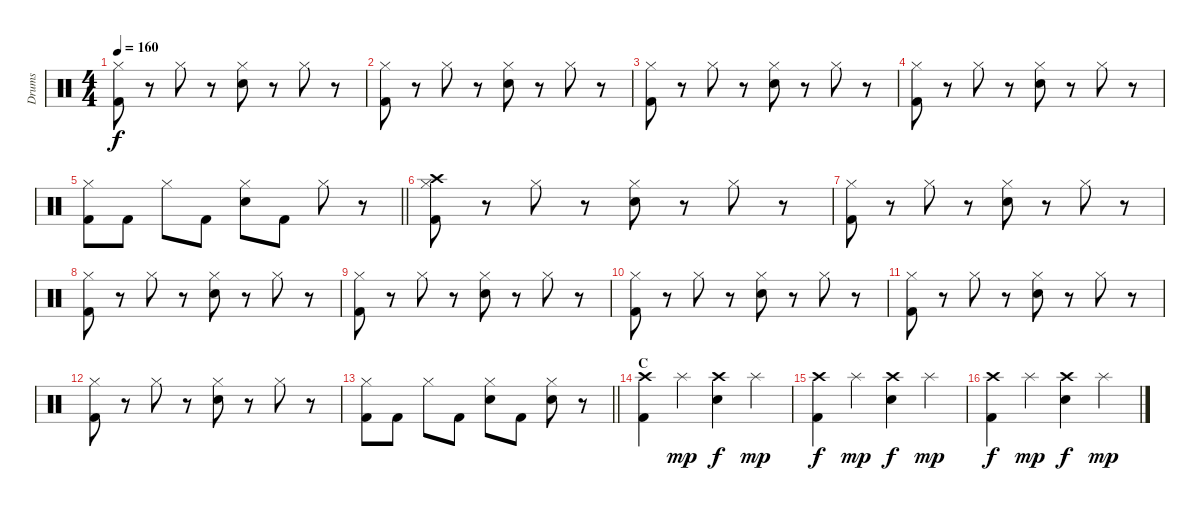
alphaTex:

\track ("Drums" "Drums") {instrument percussion}
\staff {score}
\articulation defaults
\ts (4 4)
\tempo 160
\clef neutral
\ks c
("Hi-Hat (closed)" "Kick (hit) 2").8{dy f} r.8 "Hi-Hat (closed)".8 r.8 ("Hi-Hat (closed)" "Snare (hit) 2").8 r.8 "Hi-Hat (closed)".8 r.8 |
("Hi-Hat (closed)" "Kick (hit) 2").8 r.8 "Hi-Hat (closed)".8 r.8 ("Hi-Hat (closed)" "Snare (hit) 2").8 r.8 "Hi-Hat (closed)".8 r.8 |
("Hi-Hat (closed)" "Kick (hit) 2").8 r.8 "Hi-Hat (closed)".8 r.8 ("Hi-Hat (closed)" "Snare (hit) 2").8 r.8 "Hi-Hat (closed)".8 r.8 |
("Hi-Hat (closed)" "Kick (hit) 2").8 r.8 "Hi-Hat (closed)".8 r.8 ("Hi-Hat (closed)" "Snare (hit) 2").8 r.8 "Hi-Hat (closed)".8 r.8 |
\barLineRight lightlight
("Hi-Hat (closed)" "Kick (hit) 2").8 "Kick (hit) 2".8 "Hi-Hat (closed)".8 "Kick (hit) 2".8 ("Hi-Hat (closed)" "Snare (hit) 2").8 "Kick (hit) 2".8 "Hi-Hat (closed)".8 r.8 |
("Crash high (hit)" "Hi-Hat (closed)" "Kick (hit) 2").8 r.8 "Hi-Hat (closed)".8 r.8 ("Hi-Hat (closed)" "Snare (hit) 2").8 r.8 "Hi-Hat (closed)".8 r.8 |
("Hi-Hat (closed)" "Kick (hit) 2").8 r.8 "Hi-Hat (closed)".8 r.8 ("Hi-Hat (closed)" "Snare (hit) 2").8 r.8 "Hi-Hat (closed)".8 r.8 |
("Hi-Hat (closed)" "Kick (hit) 2").8 r.8 "Hi-Hat (closed)".8 r.8 ("Hi-Hat (closed)" "Snare (hit) 2").8 r.8 "Hi-Hat (closed)".8 r.8 |
("Hi-Hat (closed)" "Kick (hit) 2").8 r.8 "Hi-Hat (closed)".8 r.8 ("Hi-Hat (closed)" "Snare (hit) 2").8 r.8 "Hi-Hat (closed)".8 r.8 |
("Hi-Hat (closed)" "Kick (hit) 2").8 r.8 "Hi-Hat (closed)".8 r.8 ("Hi-Hat (closed)" "Snare (hit) 2").8 r.8 "Hi-Hat (closed)".8 r.8 |
("Hi-Hat (closed)" "Kick (hit) 2").8 r.8 "Hi-Hat (closed)".8 r.8 ("Hi-Hat (closed)" "Snare (hit) 2").8 r.8 "Hi-Hat (closed)".8 r.8 |
("Hi-Hat (closed)" "Kick (hit) 2").8 r.8 "Hi-Hat (closed)".8 r.8 ("Hi-Hat (closed)" "Snare (hit) 2").8 r.8 "Hi-Hat (closed)".8 r.8 |
\barLineRight lightlight
("Hi-Hat (closed)" "Kick (hit) 2").8 "Kick (hit) 2".8 "Hi-Hat (closed)".8 "Kick (hit) 2".8 ("Hi-Hat (closed)" "Snare (hit) 2").8 "Kick (hit) 2".8 ("Hi-Hat (closed)" "Snare (hit) 2").8 r.8 |
\section ("" "C")
("Crash high (hit)" "Kick (hit) 2").4 "Splash (hit)".4{dy mp} ("Crash high (hit)" "Snare (hit) 2").4{dy f} "Splash (hit)".4{dy mp} |
("Crash high (hit)" "Kick (hit) 2").4{dy f} "Splash (hit)".4{dy mp} ("Crash high (hit)" "Snare (hit) 2").4{dy f} "Splash (hit)".4{dy mp} |
("Crash high (hit)" "Kick (hit) 2").4{dy f} "Splash (hit)".4{dy mp} ("Crash high (hit)" "Snare (hit) 2").4{dy f} "Splash (hit)".4{dy mp}
